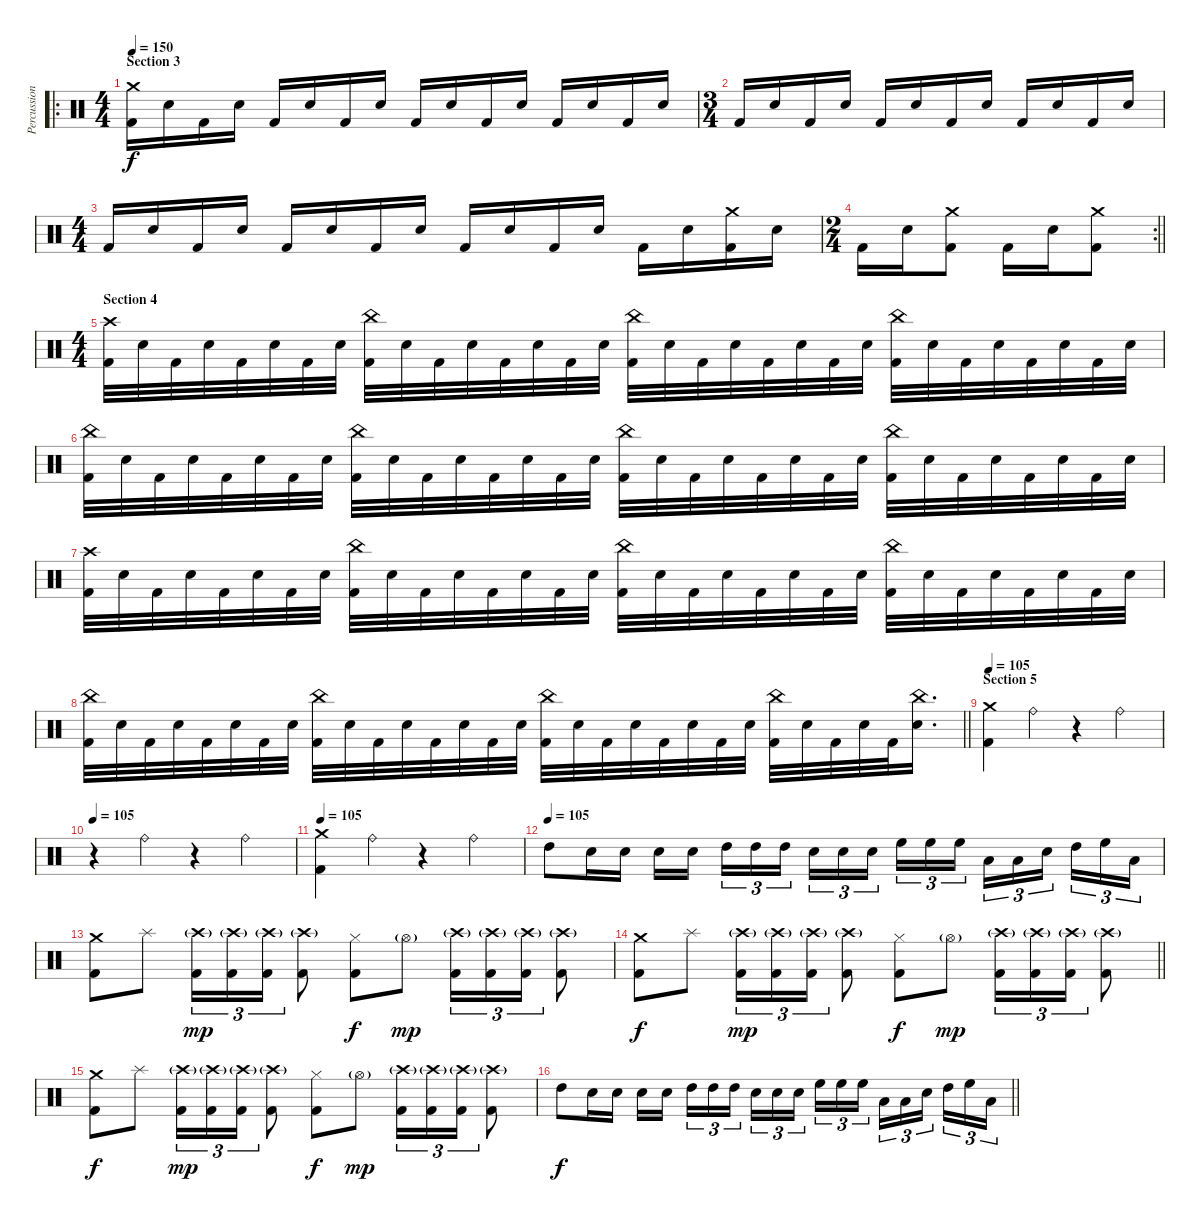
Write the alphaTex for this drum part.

\track ("Percussions" "Percussion") {instrument percussion}
\staff {score}
\articulation defaults
\ro
\ts (4 4)
\section ("" "Section 3")
\tempo 150
\clef neutral
\ks c
("Crash medium (hit)" "Kick (hit) 2").16{dy f} "Electric Snare (hit)".16 "Kick (hit) 2".16 "Electric Snare (hit)".16 "Kick (hit) 2".16 "Electric Snare (hit)".16 "Kick (hit) 2".16 "Electric Snare (hit)".16 "Kick (hit) 2".16 "Electric Snare (hit)".16 "Kick (hit) 2".16 "Electric Snare (hit)".16 "Kick (hit) 2".16 "Electric Snare (hit)".16 "Kick (hit) 2".16 "Electric Snare (hit)".16 |
\ts (3 4)
"Kick (hit) 2".16 "Electric Snare (hit)".16 "Kick (hit) 2".16 "Electric Snare (hit)".16 "Kick (hit) 2".16 "Electric Snare (hit)".16 "Kick (hit) 2".16 "Electric Snare (hit)".16 "Kick (hit) 2".16 "Electric Snare (hit)".16 "Kick (hit) 2".16 "Electric Snare (hit)".16 |
\ts (4 4)
"Kick (hit) 2".16 "Electric Snare (hit)".16 "Kick (hit) 2".16 "Electric Snare (hit)".16 "Kick (hit) 2".16 "Electric Snare (hit)".16 "Kick (hit) 2".16 "Electric Snare (hit)".16 "Kick (hit) 2".16 "Electric Snare (hit)".16 "Kick (hit) 2".16 "Electric Snare (hit)".16 "Kick (hit) 2".16 "Electric Snare (hit)".16 ("Crash medium (hit)" "Kick (hit) 2").16 "Electric Snare (hit)".16 |
\rc 2
\ts (2 4)
\barLineRight lightlight "Kick (hit) 2".16 "Electric Snare (hit)".16
("Crash medium (hit)" "Kick (hit) 2").8 "Kick (hit) 2".16 "Electric Snare (hit)".16 ("Crash medium (hit)" "Kick (hit) 2").8 |
\ts (4 4)
\section ("" "Section 4")
("Crash high (hit)" "Kick (hit) 2").32 "Electric Snare (hit)".32 "Kick (hit) 2".32 "Electric Snare (hit)".32 "Kick (hit) 2".32 "Electric Snare (hit)".32 "Kick (hit) 2".32 "Electric Snare (hit)".32 ("China (hit)" "Kick (hit) 2").32 "Electric Snare (hit)".32 "Kick (hit) 2".32 "Electric Snare (hit)".32 "Kick (hit) 2".32 "Electric Snare (hit)".32 "Kick (hit) 2".32 "Electric Snare (hit)".32 ("China (hit)" "Kick (hit) 2").32 "Electric Snare (hit)".32 "Kick (hit) 2".32 "Electric Snare (hit)".32 "Kick (hit) 2".32 "Electric Snare (hit)".32 "Kick (hit) 2".32 "Electric Snare (hit)".32 ("China (hit)" "Kick (hit) 2").32 "Electric Snare (hit)".32 "Kick (hit) 2".32 "Electric Snare (hit)".32 "Kick (hit) 2".32 "Electric Snare (hit)".32 "Kick (hit) 2".32 "Electric Snare (hit)".32 |
("China (hit)" "Kick (hit) 2").32 "Electric Snare (hit)".32 "Kick (hit) 2".32 "Electric Snare (hit)".32 "Kick (hit) 2".32 "Electric Snare (hit)".32 "Kick (hit) 2".32 "Electric Snare (hit)".32 ("China (hit)" "Kick (hit) 2").32 "Electric Snare (hit)".32 "Kick (hit) 2".32 "Electric Snare (hit)".32 "Kick (hit) 2".32 "Electric Snare (hit)".32 "Kick (hit) 2".32 "Electric Snare (hit)".32 ("China (hit)" "Kick (hit) 2").32 "Electric Snare (hit)".32 "Kick (hit) 2".32 "Electric Snare (hit)".32 "Kick (hit) 2".32 "Electric Snare (hit)".32 "Kick (hit) 2".32 "Electric Snare (hit)".32 ("China (hit)" "Kick (hit) 2").32 "Electric Snare (hit)".32 "Kick (hit) 2".32 "Electric Snare (hit)".32 "Kick (hit) 2".32 "Electric Snare (hit)".32 "Kick (hit) 2".32 "Electric Snare (hit)".32 |
("Crash high (hit)" "Kick (hit) 2").32 "Electric Snare (hit)".32 "Kick (hit) 2".32 "Electric Snare (hit)".32 "Kick (hit) 2".32 "Electric Snare (hit)".32 "Kick (hit) 2".32 "Electric Snare (hit)".32 ("China (hit)" "Kick (hit) 2").32 "Electric Snare (hit)".32 "Kick (hit) 2".32 "Electric Snare (hit)".32 "Kick (hit) 2".32 "Electric Snare (hit)".32 "Kick (hit) 2".32 "Electric Snare (hit)".32 ("China (hit)" "Kick (hit) 2").32 "Electric Snare (hit)".32 "Kick (hit) 2".32 "Electric Snare (hit)".32 "Kick (hit) 2".32 "Electric Snare (hit)".32 "Kick (hit) 2".32 "Electric Snare (hit)".32 ("China (hit)" "Kick (hit) 2").32 "Electric Snare (hit)".32 "Kick (hit) 2".32 "Electric Snare (hit)".32 "Kick (hit) 2".32 "Electric Snare (hit)".32 "Kick (hit) 2".32 "Electric Snare (hit)".32 |
\barLineRight lightlight
("China (hit)" "Kick (hit) 2").32 "Electric Snare (hit)".32 "Kick (hit) 2".32 "Electric Snare (hit)".32 "Kick (hit) 2".32 "Electric Snare (hit)".32 "Kick (hit) 2".32 "Electric Snare (hit)".32 ("China (hit)" "Kick (hit) 2").32 "Electric Snare (hit)".32 "Kick (hit) 2".32 "Electric Snare (hit)".32 "Kick (hit) 2".32 "Electric Snare (hit)".32 "Kick (hit) 2".32 "Electric Snare (hit)".32 ("China (hit)" "Kick (hit) 2").32 "Electric Snare (hit)".32 "Kick (hit) 2".32 "Electric Snare (hit)".32 "Kick (hit) 2".32 "Electric Snare (hit)".32 "Kick (hit) 2".32 "Electric Snare (hit)".32 ("China (hit)" "Kick (hit) 2").32 "Electric Snare (hit)".32 "Kick (hit) 2".32 "Electric Snare (hit)".32 "Kick (hit) 2".32 ("China (hit)" "Electric Snare (hit)").16{d} |
\section ("" "Section 5")
\tempo 105
("Crash medium (hit)" "Kick (hit) 2").4 "Ride (bell)".4 r.4 "Ride (bell)".4 |
\tempo 105
r.4 "Ride (bell)".4 r.4 "Ride (bell)".4 |
\tempo 105
("Crash medium (hit)" "Kick (hit) 2").4 "Ride (bell)".4 r.4 "Ride (bell)".4 |
\tempo (105)
"High Tom (hit)".8 "Electric Snare (hit)".16 "Electric Snare (hit)".16 "Electric Snare (hit)".16 "Electric Snare (hit)".16 "High Tom (hit)".16{tu (3 2)} "High Tom (hit)".16{tu (3 2)} "High Tom (hit)".16{tu (3 2)} "Electric Snare (hit)".16{tu (3 2)} "Electric Snare (hit)".16{tu (3 2)} "Electric Snare (hit)".16{tu (3 2)} "High Floor Tom (hit)".16{tu (3 2)} "High Floor Tom (hit)".16{tu (3 2)} "High Floor Tom (hit)".16{tu (3 2)} "Low Floor Tom (hit)".16{tu (3 2)} "Low Floor Tom (hit)".16{tu (3 2)} "Electric Snare (hit)".16{tu (3 2)} "High Tom (hit)".16{tu (3 2)} "High Floor Tom (hit)".16{tu (3 2)} "Low Floor Tom (hit)".16{tu (3 2)} |
("Crash medium (hit)" "Kick (hit) 2").8 "Splash (hit)".8 ("Crash high (hit)"{g} "Kick (hit) 2").16{tu (3 2) dy mp} ("Crash high (hit)"{g} "Kick (hit) 2").16{tu (3 2)} ("Crash high (hit)"{g} "Kick (hit) 2").16{tu (3 2)} ("Crash high (hit)"{g} "Kick (hit) 2").8 ("Hi-Hat (closed)" "Kick (hit) 2").8{dy f} "Hi-Hat (open)"{g}.8{dy mp} ("Crash high (hit)"{g} "Kick (hit) 2").16{tu (3 2)} ("Crash high (hit)"{g} "Kick (hit) 2").16{tu (3 2)} ("Crash high (hit)"{g} "Kick (hit) 2").16{tu (3 2)} ("Crash high (hit)"{g} "Kick (hit) 2").8 |
\barLineRight lightlight
("Crash medium (hit)" "Kick (hit) 2").8{dy f} "Splash (hit)".8 ("Crash high (hit)"{g} "Kick (hit) 2").16{tu (3 2) dy mp} ("Crash high (hit)"{g} "Kick (hit) 2").16{tu (3 2)} ("Crash high (hit)"{g} "Kick (hit) 2").16{tu (3 2)} ("Crash high (hit)"{g} "Kick (hit) 2").8 ("Hi-Hat (closed)" "Kick (hit) 2").8{dy f} "Hi-Hat (open)"{g}.8{dy mp} ("Crash high (hit)"{g} "Kick (hit) 2").16{tu (3 2)} ("Crash high (hit)"{g} "Kick (hit) 2").16{tu (3 2)} ("Crash high (hit)"{g} "Kick (hit) 2").16{tu (3 2)} ("Crash high (hit)"{g} "Kick (hit) 2").8 |
("Crash medium (hit)" "Kick (hit) 2").8{dy f} "Splash (hit)".8 ("Crash high (hit)"{g} "Kick (hit) 2").16{tu (3 2) dy mp} ("Crash high (hit)"{g} "Kick (hit) 2").16{tu (3 2)} ("Crash high (hit)"{g} "Kick (hit) 2").16{tu (3 2)} ("Crash high (hit)"{g} "Kick (hit) 2").8 ("Hi-Hat (closed)" "Kick (hit) 2").8{dy f} "Hi-Hat (open)"{g}.8{dy mp} ("Crash high (hit)"{g} "Kick (hit) 2").16{tu (3 2)} ("Crash high (hit)"{g} "Kick (hit) 2").16{tu (3 2)} ("Crash high (hit)"{g} "Kick (hit) 2").16{tu (3 2)} ("Crash high (hit)"{g} "Kick (hit) 2").8 |
\barLineRight lightlight "High Tom (hit)".8{dy f} "Electric Snare (hit)".16 "Electric Snare (hit)".16 "Electric Snare (hit)".16 "Electric Snare (hit)".16 "High Tom (hit)".16{tu (3 2)} "High Tom (hit)".16{tu (3 2)} "High Tom (hit)".16{tu (3 2)} "Electric Snare (hit)".16{tu (3 2)} "Electric Snare (hit)".16{tu (3 2)} "Electric Snare (hit)".16{tu (3 2)} "High Floor Tom (hit)".16{tu (3 2)} "High Floor Tom (hit)".16{tu (3 2)} "High Floor Tom (hit)".16{tu (3 2)} "Low Floor Tom (hit)".16{tu (3 2)} "Low Floor Tom (hit)".16{tu (3 2)} "Electric Snare (hit)".16{tu (3 2)} "High Tom (hit)".16{tu (3 2)} "High Floor Tom (hit)".16{tu (3 2)} "Low Floor Tom (hit)".16{tu (3 2)}
